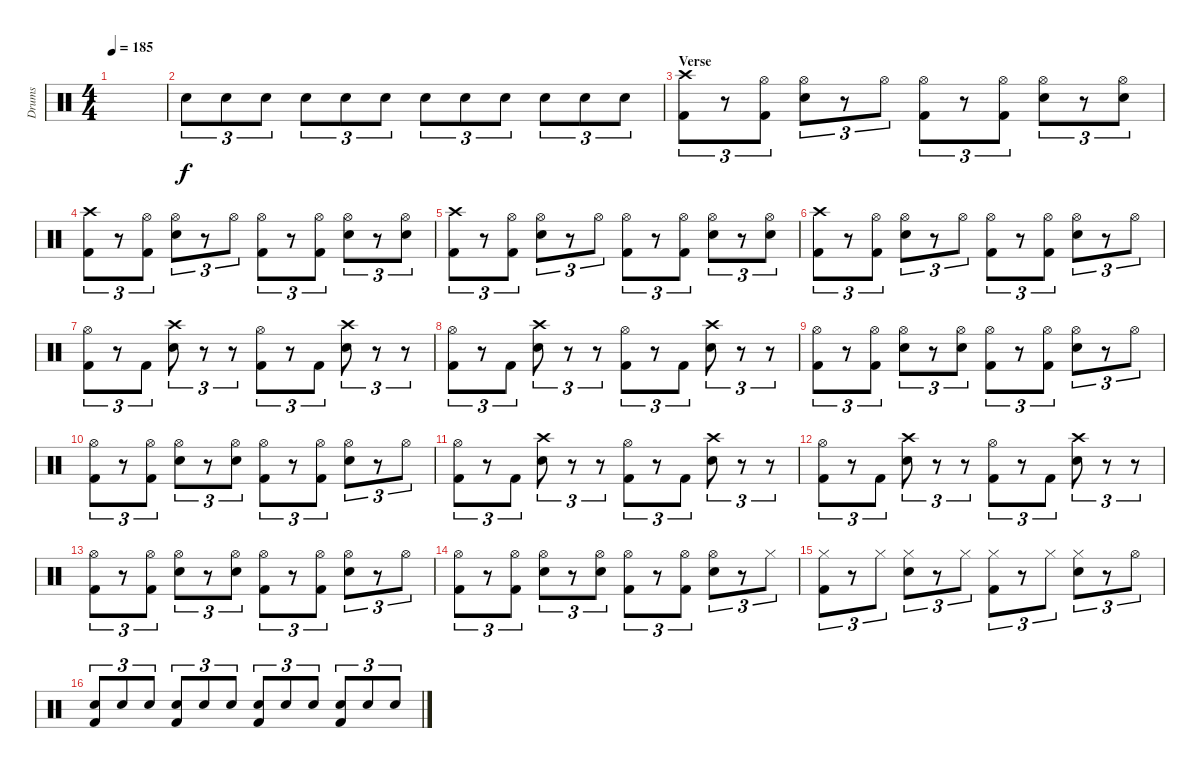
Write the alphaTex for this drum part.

\track ("Drums" "Drums") {instrument percussion}
\staff {score}
\articulation defaults
\ts (4 4)
\tempo 185
\clef neutral
\ks c
|
"Electric Snare (hit)".8{tu (3 2)} "Electric Snare (hit)".8{tu (3 2)} "Electric Snare (hit)".8{tu (3 2)} "Electric Snare (hit)".8{tu (3 2)} "Electric Snare (hit)".8{tu (3 2)} "Electric Snare (hit)".8{tu (3 2)} "Electric Snare (hit)".8{tu (3 2)} "Electric Snare (hit)".8{tu (3 2)} "Electric Snare (hit)".8{tu (3 2)} "Electric Snare (hit)".8{tu (3 2)} "Electric Snare (hit)".8{tu (3 2)} "Electric Snare (hit)".8{tu (3 2)} |
\section ("" "Verse")
("Crash high (hit)" "Kick (hit) 2").8{tu (3 2)} r.8{tu (3 2)} ("Hi-Hat (open)" "Kick (hit) 2").8{tu (3 2)} ("Hi-Hat (open)" "Electric Snare (hit)").8{tu (3 2)} r.8{tu (3 2)} "Hi-Hat (open)".8{tu (3 2)} ("Hi-Hat (open)" "Kick (hit) 2").8{tu (3 2)} r.8{tu (3 2)} ("Hi-Hat (open)" "Kick (hit) 2").8{tu (3 2)} ("Hi-Hat (open)" "Electric Snare (hit)").8{tu (3 2)} r.8{tu (3 2)} ("Hi-Hat (open)" "Electric Snare (hit)").8{tu (3 2)} |
("Crash high (hit)" "Kick (hit) 2").8{tu (3 2)} r.8{tu (3 2)} ("Hi-Hat (open)" "Kick (hit) 2").8{tu (3 2)} ("Hi-Hat (open)" "Electric Snare (hit)").8{tu (3 2)} r.8{tu (3 2)} "Hi-Hat (open)".8{tu (3 2)} ("Hi-Hat (open)" "Kick (hit) 2").8{tu (3 2)} r.8{tu (3 2)} ("Hi-Hat (open)" "Kick (hit) 2").8{tu (3 2)} ("Hi-Hat (open)" "Electric Snare (hit)").8{tu (3 2)} r.8{tu (3 2)} ("Hi-Hat (open)" "Electric Snare (hit)").8{tu (3 2)} |
("Crash high (hit)" "Kick (hit) 2").8{tu (3 2)} r.8{tu (3 2)} ("Hi-Hat (open)" "Kick (hit) 2").8{tu (3 2)} ("Hi-Hat (open)" "Electric Snare (hit)").8{tu (3 2)} r.8{tu (3 2)} "Hi-Hat (open)".8{tu (3 2)} ("Hi-Hat (open)" "Kick (hit) 2").8{tu (3 2)} r.8{tu (3 2)} ("Hi-Hat (open)" "Kick (hit) 2").8{tu (3 2)} ("Hi-Hat (open)" "Electric Snare (hit)").8{tu (3 2)} r.8{tu (3 2)} ("Hi-Hat (open)" "Electric Snare (hit)").8{tu (3 2)} |
("Crash high (hit)" "Kick (hit) 2").8{tu (3 2)} r.8{tu (3 2)} ("Hi-Hat (open)" "Kick (hit) 2").8{tu (3 2)} ("Hi-Hat (open)" "Electric Snare (hit)").8{tu (3 2)} r.8{tu (3 2)} "Hi-Hat (open)".8{tu (3 2)} ("Hi-Hat (open)" "Kick (hit) 2").8{tu (3 2)} r.8{tu (3 2)} ("Hi-Hat (open)" "Kick (hit) 2").8{tu (3 2)} ("Hi-Hat (open)" "Electric Snare (hit)").8{tu (3 2)} r.8{tu (3 2)} "Hi-Hat (open)".8{tu (3 2)} |
("Hi-Hat (open)" "Kick (hit) 2").8{tu (3 2)} r.8{tu (3 2)} "Kick (hit) 2".8{tu (3 2)} ("Crash high (hit)" "Electric Snare (hit)").8{tu (3 2)} r.8{tu (3 2)} r.8{tu (3 2)} ("Hi-Hat (open)" "Kick (hit) 2").8{tu (3 2)} r.8{tu (3 2)} "Kick (hit) 2".8{tu (3 2)} ("Crash high (hit)" "Electric Snare (hit)").8{tu (3 2)} r.8{tu (3 2)} r.8{tu (3 2)} |
("Hi-Hat (open)" "Kick (hit) 2").8{tu (3 2)} r.8{tu (3 2)} "Kick (hit) 2".8{tu (3 2)} ("Crash high (hit)" "Electric Snare (hit)").8{tu (3 2)} r.8{tu (3 2)} r.8{tu (3 2)} ("Hi-Hat (open)" "Kick (hit) 2").8{tu (3 2)} r.8{tu (3 2)} "Kick (hit) 2".8{tu (3 2)} ("Crash high (hit)" "Electric Snare (hit)").8{tu (3 2)} r.8{tu (3 2)} r.8{tu (3 2)} |
("Hi-Hat (open)" "Kick (hit) 2").8{tu (3 2)} r.8{tu (3 2)} ("Hi-Hat (open)" "Kick (hit) 2").8{tu (3 2)} ("Hi-Hat (open)" "Electric Snare (hit)").8{tu (3 2)} r.8{tu (3 2)} ("Hi-Hat (open)" "Electric Snare (hit)").8{tu (3 2)} ("Hi-Hat (open)" "Kick (hit) 2").8{tu (3 2)} r.8{tu (3 2)} ("Hi-Hat (open)" "Kick (hit) 2").8{tu (3 2)} ("Hi-Hat (open)" "Electric Snare (hit)").8{tu (3 2)} r.8{tu (3 2)} "Hi-Hat (open)".8{tu (3 2)} |
("Hi-Hat (open)" "Kick (hit) 2").8{tu (3 2)} r.8{tu (3 2)} ("Hi-Hat (open)" "Kick (hit) 2").8{tu (3 2)} ("Hi-Hat (open)" "Electric Snare (hit)").8{tu (3 2)} r.8{tu (3 2)} ("Hi-Hat (open)" "Electric Snare (hit)").8{tu (3 2)} ("Hi-Hat (open)" "Kick (hit) 2").8{tu (3 2)} r.8{tu (3 2)} ("Hi-Hat (open)" "Kick (hit) 2").8{tu (3 2)} ("Hi-Hat (open)" "Electric Snare (hit)").8{tu (3 2)} r.8{tu (3 2)} "Hi-Hat (open)".8{tu (3 2)} |
("Hi-Hat (open)" "Kick (hit) 2").8{tu (3 2)} r.8{tu (3 2)} "Kick (hit) 2".8{tu (3 2)} ("Crash high (hit)" "Electric Snare (hit)").8{tu (3 2)} r.8{tu (3 2)} r.8{tu (3 2)} ("Hi-Hat (open)" "Kick (hit) 2").8{tu (3 2)} r.8{tu (3 2)} "Kick (hit) 2".8{tu (3 2)} ("Crash high (hit)" "Electric Snare (hit)").8{tu (3 2)} r.8{tu (3 2)} r.8{tu (3 2)} |
("Hi-Hat (open)" "Kick (hit) 2").8{tu (3 2)} r.8{tu (3 2)} "Kick (hit) 2".8{tu (3 2)} ("Crash high (hit)" "Electric Snare (hit)").8{tu (3 2)} r.8{tu (3 2)} r.8{tu (3 2)} ("Hi-Hat (open)" "Kick (hit) 2").8{tu (3 2)} r.8{tu (3 2)} "Kick (hit) 2".8{tu (3 2)} ("Crash high (hit)" "Electric Snare (hit)").8{tu (3 2)} r.8{tu (3 2)} r.8{tu (3 2)} |
("Hi-Hat (open)" "Kick (hit) 2").8{tu (3 2)} r.8{tu (3 2)} ("Hi-Hat (open)" "Kick (hit) 2").8{tu (3 2)} ("Hi-Hat (open)" "Electric Snare (hit)").8{tu (3 2)} r.8{tu (3 2)} ("Hi-Hat (open)" "Electric Snare (hit)").8{tu (3 2)} ("Hi-Hat (open)" "Kick (hit) 2").8{tu (3 2)} r.8{tu (3 2)} ("Hi-Hat (open)" "Kick (hit) 2").8{tu (3 2)} ("Hi-Hat (open)" "Electric Snare (hit)").8{tu (3 2)} r.8{tu (3 2)} "Hi-Hat (open)".8{tu (3 2)} |
("Hi-Hat (open)" "Kick (hit) 2").8{tu (3 2)} r.8{tu (3 2)} ("Hi-Hat (open)" "Kick (hit) 2").8{tu (3 2)} ("Hi-Hat (open)" "Electric Snare (hit)").8{tu (3 2)} r.8{tu (3 2)} ("Hi-Hat (open)" "Electric Snare (hit)").8{tu (3 2)} ("Hi-Hat (open)" "Kick (hit) 2").8{tu (3 2)} r.8{tu (3 2)} ("Hi-Hat (open)" "Kick (hit) 2").8{tu (3 2)} ("Hi-Hat (open)" "Electric Snare (hit)").8{tu (3 2)} r.8{tu (3 2)} "Hi-Hat (closed)".8{tu (3 2)} |
("Hi-Hat (closed)" "Kick (hit) 2").8{tu (3 2)} r.8{tu (3 2)} "Hi-Hat (closed)".8{tu (3 2)} ("Hi-Hat (closed)" "Electric Snare (hit)").8{tu (3 2)} r.8{tu (3 2)} "Hi-Hat (closed)".8{tu (3 2)} ("Hi-Hat (closed)" "Kick (hit) 2").8{tu (3 2)} r.8{tu (3 2)} "Hi-Hat (closed)".8{tu (3 2)} ("Hi-Hat (closed)" "Electric Snare (hit)").8{tu (3 2)} r.8{tu (3 2)} "Hi-Hat (open)".8{tu (3 2)} |
("Electric Snare (hit)" "Kick (hit) 2").8{tu (3 2)} "Electric Snare (hit)".8{tu (3 2)} "Electric Snare (hit)".8{tu (3 2)} ("Electric Snare (hit)" "Kick (hit) 2").8{tu (3 2)} "Electric Snare (hit)".8{tu (3 2)} "Electric Snare (hit)".8{tu (3 2)} ("Electric Snare (hit)" "Kick (hit) 2").8{tu (3 2)} "Electric Snare (hit)".8{tu (3 2)} "Electric Snare (hit)".8{tu (3 2)} ("Electric Snare (hit)" "Kick (hit) 2").8{tu (3 2)} "Electric Snare (hit)".8{tu (3 2)} "Electric Snare (hit)".8{tu (3 2)}
